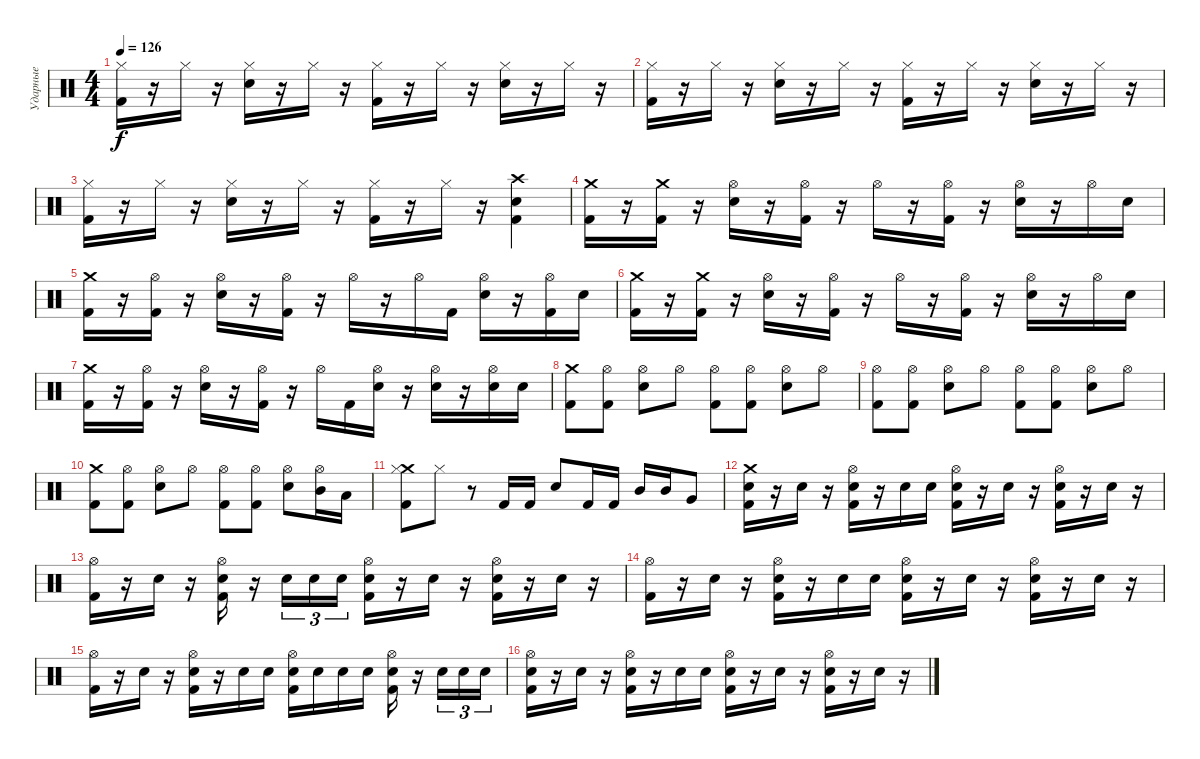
\track ("Ударные" "Ударные") {instrument percussion}
\staff {score}
\articulation defaults
\ts (4 4)
\tempo 126
\clef neutral
\ks c
("Hi-Hat (closed)" "Kick (hit) 2").16{dy f} r.16 "Hi-Hat (closed)".16 r.16 ("Hi-Hat (closed)" "Electric Snare (hit)").16 r.16 "Hi-Hat (closed)".16 r.16 ("Hi-Hat (closed)" "Kick (hit) 2").16 r.16 "Hi-Hat (closed)".16 r.16 ("Hi-Hat (closed)" "Electric Snare (hit)").16 r.16 "Hi-Hat (closed)".16 r.16 |
("Hi-Hat (closed)" "Kick (hit) 2").16 r.16 "Hi-Hat (closed)".16 r.16 ("Hi-Hat (closed)" "Electric Snare (hit)").16 r.16 "Hi-Hat (closed)".16 r.16 ("Hi-Hat (closed)" "Kick (hit) 2").16 r.16 "Hi-Hat (closed)".16 r.16 ("Hi-Hat (closed)" "Electric Snare (hit)").16 r.16 "Hi-Hat (closed)".16 r.16 |
("Hi-Hat (closed)" "Kick (hit) 2").16 r.16 "Hi-Hat (closed)".16 r.16 ("Hi-Hat (closed)" "Electric Snare (hit)").16 r.16 "Hi-Hat (closed)".16 r.16 ("Hi-Hat (closed)" "Kick (hit) 2").16 r.16 "Hi-Hat (closed)".16 r.16 ("Crash high (hit)" "Electric Snare (hit)" "Kick (hit) 2").4 |
("Crash medium (hit)" "Kick (hit) 2").16 r.16 ("Crash medium (hit)" "Kick (hit) 2").16 r.16 ("Hi-Hat (open)" "Electric Snare (hit)").16 r.16 ("Hi-Hat (open)" "Kick (hit) 2").16 r.16 "Hi-Hat (open)".16 r.16 ("Hi-Hat (open)" "Kick (hit) 2").16 r.16 ("Hi-Hat (open)" "Electric Snare (hit)").16 r.16 "Hi-Hat (open)".16 "Electric Snare (hit)".16 |
("Crash medium (hit)" "Kick (hit) 2").16 r.16 ("Hi-Hat (open)" "Kick (hit) 2").16 r.16 ("Hi-Hat (open)" "Electric Snare (hit)").16 r.16 ("Hi-Hat (open)" "Kick (hit) 2").16 r.16 "Hi-Hat (open)".16 r.16 "Hi-Hat (open)".16 "Kick (hit) 2".16 ("Hi-Hat (open)" "Electric Snare (hit)").16 r.16 ("Hi-Hat (open)" "Kick (hit) 2").16 "Electric Snare (hit)".16 |
("Crash medium (hit)" "Kick (hit) 2").16 r.16 ("Crash medium (hit)" "Kick (hit) 2").16 r.16 ("Hi-Hat (open)" "Electric Snare (hit)").16 r.16 ("Hi-Hat (open)" "Kick (hit) 2").16 r.16 "Hi-Hat (open)".16 r.16 ("Hi-Hat (open)" "Kick (hit) 2").16 r.16 ("Hi-Hat (open)" "Electric Snare (hit)").16 r.16 "Hi-Hat (open)".16 "Electric Snare (hit)".16 |
("Crash medium (hit)" "Kick (hit) 2").16 r.16 ("Hi-Hat (open)" "Kick (hit) 2").16 r.16 ("Hi-Hat (open)" "Electric Snare (hit)").16 r.16 ("Hi-Hat (open)" "Kick (hit) 2").16 r.16 "Hi-Hat (open)".16 "Kick (hit) 2".16 ("Hi-Hat (open)" "Electric Snare (hit)").16 r.16 ("Hi-Hat (open)" "Electric Snare (hit)").16 r.16 ("Hi-Hat (open)" "Electric Snare (hit)").16 "Electric Snare (hit)".16 |
("Crash medium (hit)" "Kick (hit) 2").8 ("Hi-Hat (open)" "Kick (hit) 2").8 ("Hi-Hat (open)" "Electric Snare (hit)").8 "Hi-Hat (open)".8 ("Hi-Hat (open)" "Kick (hit) 2").8 ("Hi-Hat (open)" "Kick (hit) 2").8 ("Hi-Hat (open)" "Electric Snare (hit)").8 "Hi-Hat (open)".8 |
("Hi-Hat (open)" "Kick (hit) 2").8 ("Hi-Hat (open)" "Kick (hit) 2").8 ("Hi-Hat (open)" "Electric Snare (hit)").8 "Hi-Hat (open)".8 ("Hi-Hat (open)" "Kick (hit) 2").8 ("Hi-Hat (open)" "Kick (hit) 2").8 ("Hi-Hat (open)" "Electric Snare (hit)").8 "Hi-Hat (open)".8 |
("Crash medium (hit)" "Kick (hit) 2").8 ("Hi-Hat (open)" "Kick (hit) 2").8 ("Hi-Hat (open)" "Electric Snare (hit)").8 "Hi-Hat (open)".8 ("Hi-Hat (open)" "Kick (hit) 2").8 ("Hi-Hat (open)" "Kick (hit) 2").8 ("Hi-Hat (open)" "Electric Snare (hit)").8 ("Hi-Hat (open)" "Mid Tom (hit)").16 "Low Tom (hit)".16 |
("Crash medium (hit)" "Hi-Hat (closed)" "Kick (hit) 2").8 "Hi-Hat (closed)".8 r.8 "Kick (hit) 2".16 "Kick (hit) 2".16 "Electric Snare (hit)".8 "Kick (hit) 2".16 "Kick (hit) 2".16 "Mid Tom (hit)".16 "Mid Tom (hit)".16 "Very Low Tom (hit)".8 |
("Crash medium (hit)" "Electric Snare (hit)" "Kick (hit) 2").16 r.16 "Electric Snare (hit)".16 r.16 ("Hi-Hat (open)" "Electric Snare (hit)" "Kick (hit) 2").16 r.16 "Electric Snare (hit)".16 "Electric Snare (hit)".16 ("Hi-Hat (open)" "Electric Snare (hit)" "Kick (hit) 2").16 r.16 "Electric Snare (hit)".16 r.16 ("Hi-Hat (open)" "Electric Snare (hit)" "Kick (hit) 2").16 r.16 "Electric Snare (hit)".16 r.16 |
("Hi-Hat (open)" "Kick (hit) 2").16 r.16 "Electric Snare (hit)".16 r.16 ("Hi-Hat (open)" "Electric Snare (hit)" "Kick (hit) 2").16 r.16 "Electric Snare (hit)".16{tu (3 2)} "Electric Snare (hit)".16{tu (3 2)} "Electric Snare (hit)".16{tu (3 2)} ("Hi-Hat (open)" "Electric Snare (hit)" "Kick (hit) 2").16 r.16 "Electric Snare (hit)".16 r.16 ("Hi-Hat (open)" "Electric Snare (hit)" "Kick (hit) 2").16 r.16 "Electric Snare (hit)".16 r.16 |
("Hi-Hat (open)" "Kick (hit) 2").16 r.16 "Electric Snare (hit)".16 r.16 ("Hi-Hat (open)" "Electric Snare (hit)" "Kick (hit) 2").16 r.16 "Electric Snare (hit)".16 "Electric Snare (hit)".16 ("Hi-Hat (open)" "Electric Snare (hit)" "Kick (hit) 2").16 r.16 "Electric Snare (hit)".16 r.16 ("Hi-Hat (open)" "Electric Snare (hit)" "Kick (hit) 2").16 r.16 "Electric Snare (hit)".16 r.16 |
("Hi-Hat (open)" "Kick (hit) 2").16 r.16 "Electric Snare (hit)".16 r.16 ("Hi-Hat (open)" "Electric Snare (hit)" "Kick (hit) 2").16 r.16 "Electric Snare (hit)".16 "Electric Snare (hit)".16 ("Hi-Hat (open)" "Electric Snare (hit)" "Kick (hit) 2").16 "Electric Snare (hit)".16 "Electric Snare (hit)".16 "Electric Snare (hit)".16 ("Hi-Hat (open)" "Electric Snare (hit)" "Kick (hit) 2").16 r.16 "Electric Snare (hit)".16{tu (3 2)} "Electric Snare (hit)".16{tu (3 2)} "Electric Snare (hit)".16{tu (3 2)} |
("Hi-Hat (open)" "Electric Snare (hit)" "Kick (hit) 2").16 r.16 "Electric Snare (hit)".16 r.16 ("Hi-Hat (open)" "Electric Snare (hit)" "Kick (hit) 2").16 r.16 "Electric Snare (hit)".16 "Electric Snare (hit)".16 ("Hi-Hat (open)" "Electric Snare (hit)" "Kick (hit) 2").16 r.16 "Electric Snare (hit)".16 r.16 ("Hi-Hat (open)" "Electric Snare (hit)" "Kick (hit) 2").16 r.16 "Electric Snare (hit)".16 r.16
